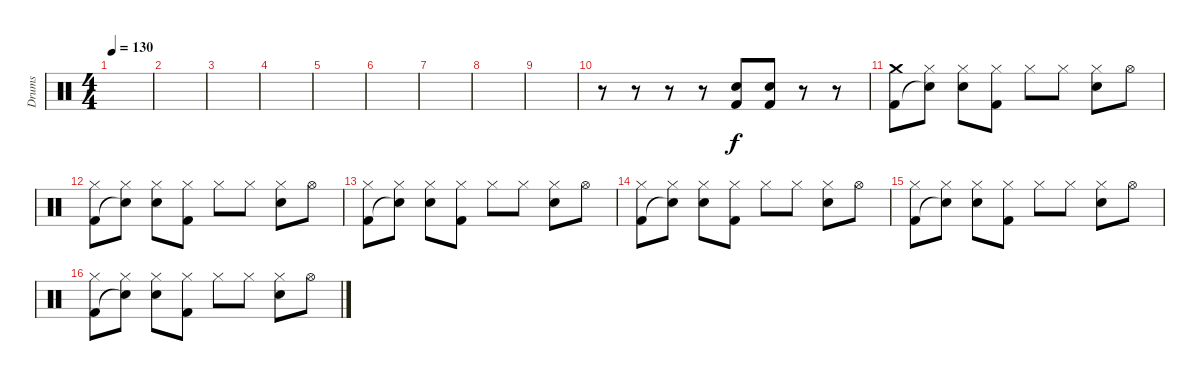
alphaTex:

\track ("Drums" "Drums") {instrument percussion}
\staff {score}
\articulation defaults
\ts (4 4)
\tempo 130
\clef neutral
\ks c
|
|
|
|
|
|
|
|
|
r.8 r.8 r.8 r.8 ("Electric Snare (hit)" "Kick (hit) 2").8 ("Electric Snare (hit)" "Kick (hit) 2").8 r.8 r.8 |
("Crash medium (hit)" "Kick (hit) 2").8 ("Hi-Hat (closed)" "Snare (hit)"{t}).8 ("Hi-Hat (closed)" "Electric Snare (hit)").8 ("Hi-Hat (closed)" "Kick (hit) 2").8 "Hi-Hat (closed)".8 "Hi-Hat (closed)".8 ("Hi-Hat (closed)" "Electric Snare (hit)").8 "Hi-Hat (open)".8 |
("Hi-Hat (closed)" "Kick (hit) 2").8 ("Hi-Hat (closed)" "Snare (hit)"{t}).8 ("Hi-Hat (closed)" "Electric Snare (hit)").8 ("Hi-Hat (closed)" "Kick (hit) 2").8 "Hi-Hat (closed)".8 "Hi-Hat (closed)".8 ("Hi-Hat (closed)" "Electric Snare (hit)").8 "Hi-Hat (open)".8 |
("Hi-Hat (closed)" "Kick (hit) 2").8 ("Hi-Hat (closed)" "Snare (hit)"{t}).8 ("Hi-Hat (closed)" "Electric Snare (hit)").8 ("Hi-Hat (closed)" "Kick (hit) 2").8 "Hi-Hat (closed)".8 "Hi-Hat (closed)".8 ("Hi-Hat (closed)" "Electric Snare (hit)").8 "Hi-Hat (open)".8 |
("Hi-Hat (closed)" "Kick (hit) 2").8 ("Hi-Hat (closed)" "Snare (hit)"{t}).8 ("Hi-Hat (closed)" "Electric Snare (hit)").8 ("Hi-Hat (closed)" "Kick (hit) 2").8 "Hi-Hat (closed)".8 "Hi-Hat (closed)".8 ("Hi-Hat (closed)" "Electric Snare (hit)").8 "Hi-Hat (open)".8 |
("Hi-Hat (closed)" "Kick (hit) 2").8 ("Hi-Hat (closed)" "Snare (hit)"{t}).8 ("Hi-Hat (closed)" "Electric Snare (hit)").8 ("Hi-Hat (closed)" "Kick (hit) 2").8 "Hi-Hat (closed)".8 "Hi-Hat (closed)".8 ("Hi-Hat (closed)" "Electric Snare (hit)").8 "Hi-Hat (open)".8 |
("Hi-Hat (closed)" "Kick (hit) 2").8 ("Hi-Hat (closed)" "Snare (hit)"{t}).8 ("Hi-Hat (closed)" "Electric Snare (hit)").8 ("Hi-Hat (closed)" "Kick (hit) 2").8 "Hi-Hat (closed)".8 "Hi-Hat (closed)".8 ("Hi-Hat (closed)" "Electric Snare (hit)").8 "Hi-Hat (open)".8
